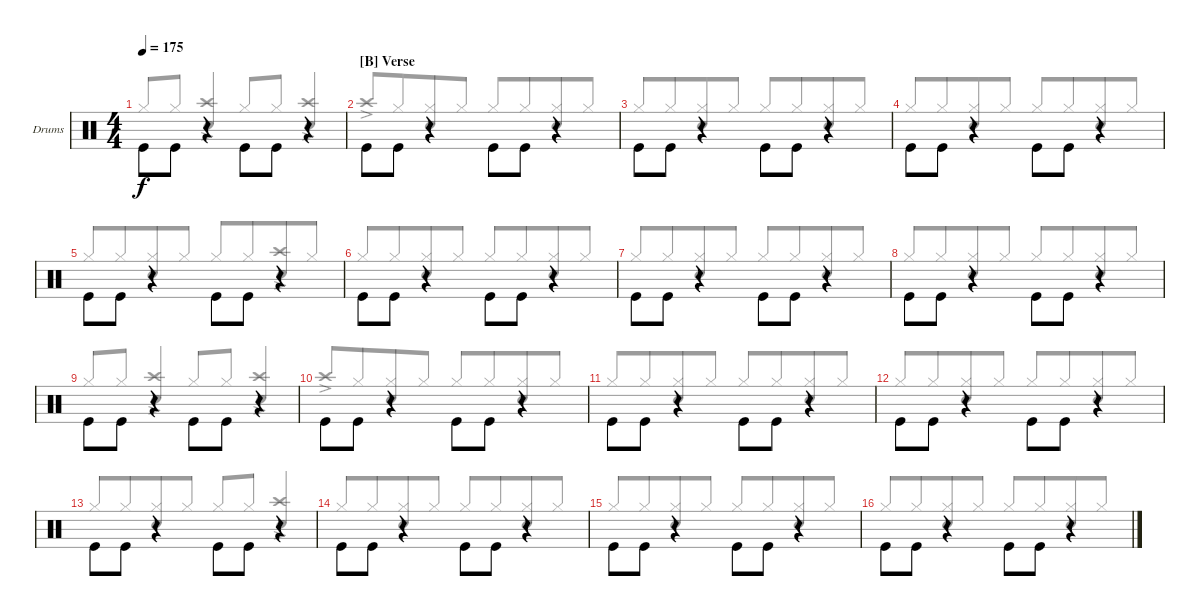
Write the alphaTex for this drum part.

\defaultSystemsLayout 4
\bracketExtendMode groupsimilarinstruments
\firstSystemTrackNameOrientation horizontal
\otherSystemsTrackNameOrientation horizontal
\track ("Drum" "Drums") {instrument percussion}
\staff {score}
\articulation defaults
\voice
\ts (4 4)
\tempo 175
\clef neutral
\scale
1.02648
\ks c "Kick (hit)".8{dy f beam invert} "Kick (hit)".8
r.4 "Kick (hit)".8{beam invert} "Kick (hit)".8 r.4 |
\section ("B" "Verse")
\scale
0.973518 "Kick (hit)".8{beam invert} "Kick (hit)".8 r.4 "Kick (hit)".8{beam invert} "Kick (hit)".8 r.4 |
\scale
1.02648 "Kick (hit)".8{beam invert} "Kick (hit)".8 r.4 "Kick (hit)".8{beam invert} "Kick (hit)".8 r.4 |
\scale
0.973518 "Kick (hit)".8{beam invert} "Kick (hit)".8 r.4 "Kick (hit)".8{beam invert} "Kick (hit)".8 r.4 |
\scale
1.02648 "Kick (hit)".8{beam invert} "Kick (hit)".8 r.4 "Kick (hit)".8{beam invert} "Kick (hit)".8 r.4 |
\scale
0.973518 "Kick (hit)".8{beam invert} "Kick (hit)".8 r.4 "Kick (hit)".8{beam invert} "Kick (hit)".8 r.4 |
\scale
1.02648 "Kick (hit)".8{beam invert} "Kick (hit)".8 r.4 "Kick (hit)".8{beam invert} "Kick (hit)".8 r.4 |
\scale
0.973518 "Kick (hit)".8{beam invert} "Kick (hit)".8 r.4 "Kick (hit)".8{beam invert} "Kick (hit)".8 r.4 |
\scale
1.02648 "Kick (hit)".8{beam invert} "Kick (hit)".8 r.4 "Kick (hit)".8{beam invert} "Kick (hit)".8 r.4 |
\scale
0.973518 "Kick (hit)".8{beam invert} "Kick (hit)".8 r.4 "Kick (hit)".8{beam invert} "Kick (hit)".8 r.4 |
\scale
1.02648 "Kick (hit)".8{beam invert} "Kick (hit)".8 r.4 "Kick (hit)".8{beam invert} "Kick (hit)".8 r.4 |
\scale
0.973518 "Kick (hit)".8{beam invert} "Kick (hit)".8 r.4 "Kick (hit)".8{beam invert} "Kick (hit)".8 r.4 |
\scale
1.02648 "Kick (hit)".8{beam invert} "Kick (hit)".8 r.4 "Kick (hit)".8{beam invert} "Kick (hit)".8 r.4 |
\scale
0.973518 "Kick (hit)".8{beam invert} "Kick (hit)".8 r.4 "Kick (hit)".8{beam invert} "Kick (hit)".8 r.4 |
\scale
1.02648 "Kick (hit)".8{beam invert} "Kick (hit)".8 r.4 "Kick (hit)".8{beam invert} "Kick (hit)".8 r.4 |
\scale
0.973518 "Kick (hit)".8{beam invert} "Kick (hit)".8 r.4 "Kick (hit)".8{beam invert} "Kick (hit)".8 r.4
\voice
\clef neutral
\ottava regular
\simile none
\scale
1.02648
\ks c "Hi-Hat (closed)".8{dy f beam invert beam merge} "Hi-Hat (closed)".8{beam merge}
("Crash high (hit)"{ac} "Snare (hit) 2").4{beam invert} "Hi-Hat (closed)".8{beam invert beam merge} "Hi-Hat (closed)".8{beam merge} ("Crash high (hit)"{ac} "Snare (hit) 2").4{beam invert} |
\scale
0.973518 "Crash high (hit)"{ac}.8{beam invert beam merge} "Hi-Hat (closed)".8{beam merge} ("Hi-Hat (closed)" "Snare (hit) 2").8{beam merge} "Hi-Hat (closed)".8 "Hi-Hat (closed)".8{beam invert beam merge} "Hi-Hat (closed)".8{beam merge} ("Hi-Hat (closed)" "Snare (hit) 2").8{beam merge} "Hi-Hat (closed)".8 |
\scale
1.02648 "Hi-Hat (closed)".8{beam invert beam merge} "Hi-Hat (closed)".8{beam merge} ("Hi-Hat (closed)" "Snare (hit) 2").8{beam merge} "Hi-Hat (closed)".8 "Hi-Hat (closed)".8{beam invert beam merge} "Hi-Hat (closed)".8{beam merge} ("Hi-Hat (closed)" "Snare (hit) 2").8{beam merge} "Hi-Hat (closed)".8 |
\scale
0.973518 "Hi-Hat (closed)".8{beam invert beam merge} "Hi-Hat (closed)".8{beam merge} ("Hi-Hat (closed)" "Snare (hit) 2").8{beam merge} "Hi-Hat (closed)".8 "Hi-Hat (closed)".8{beam invert beam merge} "Hi-Hat (closed)".8{beam merge} ("Hi-Hat (closed)" "Snare (hit) 2").8{beam merge} "Hi-Hat (closed)".8 |
\scale
1.02648 "Hi-Hat (closed)".8{beam invert beam merge} "Hi-Hat (closed)".8{beam merge} ("Hi-Hat (closed)" "Snare (hit) 2").8{beam merge} "Hi-Hat (closed)".8 "Hi-Hat (closed)".8{beam invert beam merge} "Hi-Hat (closed)".8{beam merge} ("Snare (hit) 2" "Crash high (hit)"{ac}).8{beam merge} "Hi-Hat (closed)".8 |
\scale
0.973518 "Hi-Hat (closed)".8{beam invert beam merge} "Hi-Hat (closed)".8{beam merge} ("Hi-Hat (closed)" "Snare (hit) 2").8{beam merge} "Hi-Hat (closed)".8 "Hi-Hat (closed)".8{beam invert beam merge} "Hi-Hat (closed)".8{beam merge} ("Hi-Hat (closed)" "Snare (hit) 2").8{beam merge} "Hi-Hat (closed)".8 |
\scale
1.02648 "Hi-Hat (closed)".8{beam invert beam merge} "Hi-Hat (closed)".8{beam merge} ("Hi-Hat (closed)" "Snare (hit) 2").8{beam merge} "Hi-Hat (closed)".8 "Hi-Hat (closed)".8{beam invert beam merge} "Hi-Hat (closed)".8{beam merge} ("Hi-Hat (closed)" "Snare (hit) 2").8{beam merge} "Hi-Hat (closed)".8 |
\scale
0.973518 "Hi-Hat (closed)".8{beam invert beam merge} "Hi-Hat (closed)".8{beam merge} ("Hi-Hat (closed)" "Snare (hit) 2").8{beam merge} "Hi-Hat (closed)".8 "Hi-Hat (closed)".8{beam invert beam merge} "Hi-Hat (closed)".8{beam merge} ("Hi-Hat (closed)" "Snare (hit) 2").8{beam merge} "Hi-Hat (closed)".8 |
\scale
1.02648 "Hi-Hat (closed)".8{beam invert beam merge} "Hi-Hat (closed)".8{beam merge} ("Crash high (hit)"{ac} "Snare (hit) 2").4{beam invert} "Hi-Hat (closed)".8{beam invert beam merge} "Hi-Hat (closed)".8{beam merge} ("Crash high (hit)"{ac} "Snare (hit) 2").4{beam invert} |
\scale
0.973518 "Crash high (hit)"{ac}.8{beam invert beam merge} "Hi-Hat (closed)".8{beam merge} ("Hi-Hat (closed)" "Snare (hit) 2").8{beam merge} "Hi-Hat (closed)".8 "Hi-Hat (closed)".8{beam invert beam merge} "Hi-Hat (closed)".8{beam merge} ("Hi-Hat (closed)" "Snare (hit) 2").8{beam merge} "Hi-Hat (closed)".8 |
\scale
1.02648 "Hi-Hat (closed)".8{beam invert beam merge} "Hi-Hat (closed)".8{beam merge} ("Hi-Hat (closed)" "Snare (hit) 2").8{beam merge} "Hi-Hat (closed)".8 "Hi-Hat (closed)".8{beam invert beam merge} "Hi-Hat (closed)".8{beam merge} ("Hi-Hat (closed)" "Snare (hit) 2").8{beam merge} "Hi-Hat (closed)".8 |
\scale
0.973518 "Hi-Hat (closed)".8{beam invert beam merge} "Hi-Hat (closed)".8{beam merge} ("Hi-Hat (closed)" "Snare (hit) 2").8{beam merge} "Hi-Hat (closed)".8 "Hi-Hat (closed)".8{beam invert beam merge} "Hi-Hat (closed)".8{beam merge} ("Hi-Hat (closed)" "Snare (hit) 2").8{beam merge} "Hi-Hat (closed)".8 |
\scale
1.02648 "Hi-Hat (closed)".8{beam invert beam merge} "Hi-Hat (closed)".8{beam merge} ("Hi-Hat (closed)" "Snare (hit) 2").8{beam merge} "Hi-Hat (closed)".8 "Hi-Hat (closed)".8{beam invert beam merge} "Hi-Hat (closed)".8{beam merge} ("Crash high (hit)"{ac} "Snare (hit) 2").4{beam invert} |
\scale
0.973518 "Hi-Hat (closed)".8{beam invert beam merge} "Hi-Hat (closed)".8{beam merge} ("Hi-Hat (closed)" "Snare (hit) 2").8{beam merge} "Hi-Hat (closed)".8 "Hi-Hat (closed)".8{beam invert beam merge} "Hi-Hat (closed)".8{beam merge} ("Hi-Hat (closed)" "Snare (hit) 2").8{beam merge} "Hi-Hat (closed)".8 |
\scale
1.02648 "Hi-Hat (closed)".8{beam invert beam merge} "Hi-Hat (closed)".8{beam merge} ("Hi-Hat (closed)" "Snare (hit) 2").8{beam merge} "Hi-Hat (closed)".8 "Hi-Hat (closed)".8{beam invert beam merge} "Hi-Hat (closed)".8{beam merge} ("Hi-Hat (closed)" "Snare (hit) 2").8{beam merge} "Hi-Hat (closed)".8 |
\scale
0.973518 "Hi-Hat (closed)".8{beam invert beam merge} "Hi-Hat (closed)".8{beam merge} ("Hi-Hat (closed)" "Snare (hit) 2").8{beam merge} "Hi-Hat (closed)".8 "Hi-Hat (closed)".8{beam invert beam merge} "Hi-Hat (closed)".8{beam merge} ("Hi-Hat (closed)" "Snare (hit) 2").8{beam merge} "Hi-Hat (closed)".8
